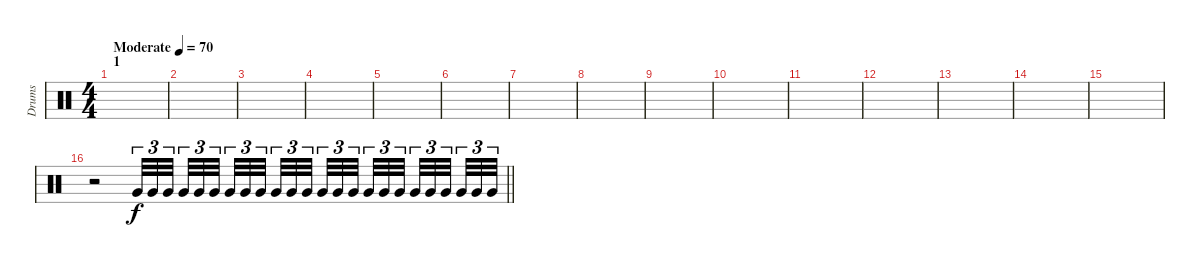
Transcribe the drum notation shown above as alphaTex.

\track ("Drums" "Drums") {instrument percussion}
\staff {score}
\articulation defaults
\ts (4 4)
\section ("" "1")
\tempo (70 "Moderate")
\clef neutral
\ks c
|
|
|
|
|
|
|
|
|
|
|
|
|
|
|
\barLineRight lightlight
r.2 "Very Low Tom (hit)".32{tu (3 2) volume 12} "Very Low Tom (hit)".32{tu (3 2)} "Very Low Tom (hit)".32{tu (3 2) beam splitsecondary} "Very Low Tom (hit)".32{tu (3 2)} "Very Low Tom (hit)".32{tu (3 2)} "Very Low Tom (hit)".32{tu (3 2) beam splitsecondary} "Very Low Tom (hit)".32{tu (3 2)} "Very Low Tom (hit)".32{tu (3 2)} "Very Low Tom (hit)".32{tu (3 2) beam splitsecondary} "Very Low Tom (hit)".32{tu (3 2)} "Very Low Tom (hit)".32{tu (3 2)} "Very Low Tom (hit)".32{tu (3 2)} "Very Low Tom (hit)".32{tu (3 2)} "Very Low Tom (hit)".32{tu (3 2)} "Very Low Tom (hit)".32{tu (3 2) beam splitsecondary} "Very Low Tom (hit)".32{tu (3 2)} "Very Low Tom (hit)".32{tu (3 2)} "Very Low Tom (hit)".32{tu (3 2) beam splitsecondary} "Very Low Tom (hit)".32{tu (3 2)} "Very Low Tom (hit)".32{tu (3 2)} "Very Low Tom (hit)".32{tu (3 2) beam splitsecondary} "Very Low Tom (hit)".32{tu (3 2)} "Very Low Tom (hit)".32{tu (3 2)} "Very Low Tom (hit)".32{tu (3 2)}
